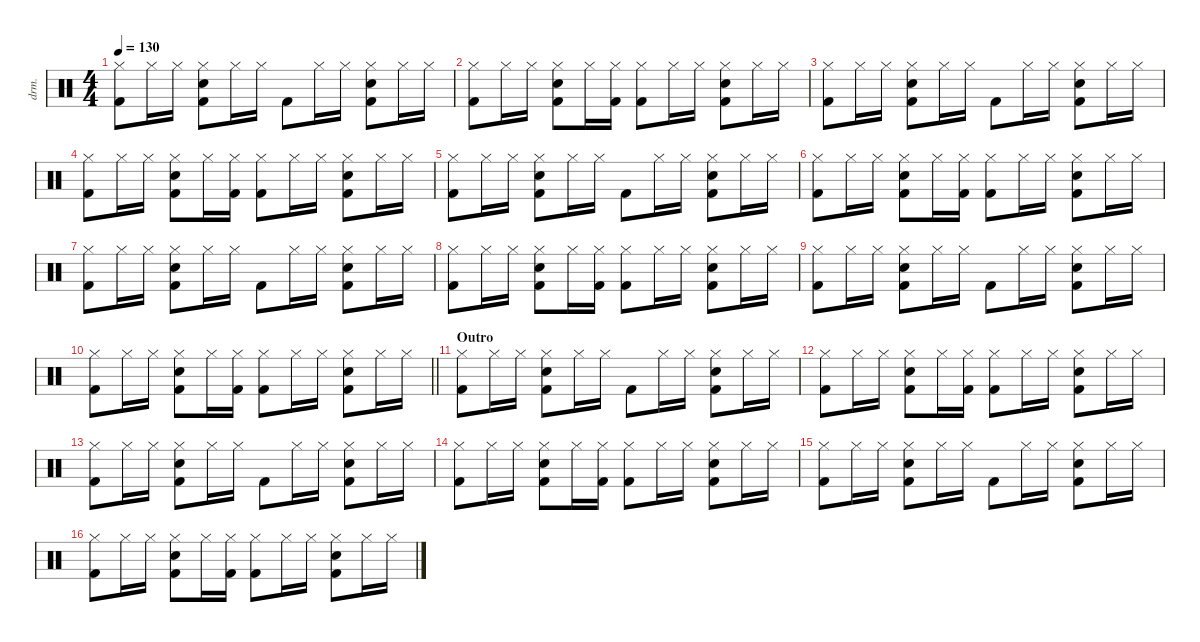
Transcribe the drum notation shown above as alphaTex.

\defaultSystemsLayout 4
\hideDynamics
\bracketExtendMode nobrackets
\otherSystemsTrackNameOrientation horizontal
\track ("Percussion" "drm.") {defaultSystemsLayout 4 instrument percussion}
\staff {score}
\articulation defaults
\ts (4 4)
\tempo 130
\clef neutral
\ks c
("Hi-Hat (closed)" "Kick (hit) 2").8{dy f beam Down} "Hi-Hat (closed)".16{beam Down} "Hi-Hat (closed)".16{beam Down} ("Hi-Hat (closed)" "Snare (hit) 2" "Kick (hit) 2").8{beam Down} "Hi-Hat (closed)".16{beam Down} "Hi-Hat (closed)".16{beam Down} "Kick (hit) 2".8{beam Down} "Hi-Hat (closed)".16{beam Down} "Hi-Hat (closed)".16{beam Down} ("Hi-Hat (closed)" "Snare (hit) 2" "Kick (hit) 2").8{beam Down} "Hi-Hat (closed)".16{beam Down} "Hi-Hat (closed)".16{beam Down} |
("Hi-Hat (closed)" "Kick (hit) 2").8{beam Down} "Hi-Hat (closed)".16{beam Down} "Hi-Hat (closed)".16{beam Down} ("Hi-Hat (closed)" "Snare (hit) 2" "Kick (hit) 2").8{beam Down} "Hi-Hat (closed)".16{beam Down} ("Hi-Hat (closed)" "Kick (hit) 2").16{beam Down} ("Hi-Hat (closed)" "Kick (hit) 2").8{beam Down} "Hi-Hat (closed)".16{beam Down} "Hi-Hat (closed)".16{beam Down} ("Hi-Hat (closed)" "Snare (hit) 2" "Kick (hit) 2").8{beam Down} "Hi-Hat (closed)".16{beam Down} "Hi-Hat (closed)".16{beam Down} |
("Hi-Hat (closed)" "Kick (hit) 2").8{beam Down} "Hi-Hat (closed)".16{beam Down} "Hi-Hat (closed)".16{beam Down} ("Hi-Hat (closed)" "Snare (hit) 2" "Kick (hit) 2").8{beam Down} "Hi-Hat (closed)".16{beam Down} "Hi-Hat (closed)".16{beam Down} "Kick (hit) 2".8{beam Down} "Hi-Hat (closed)".16{beam Down} "Hi-Hat (closed)".16{beam Down} ("Hi-Hat (closed)" "Snare (hit) 2" "Kick (hit) 2").8{beam Down} "Hi-Hat (closed)".16{beam Down} "Hi-Hat (closed)".16{beam Down} |
("Hi-Hat (closed)" "Kick (hit) 2").8{beam Down} "Hi-Hat (closed)".16{beam Down} "Hi-Hat (closed)".16{beam Down} ("Hi-Hat (closed)" "Snare (hit) 2" "Kick (hit) 2").8{beam Down} "Hi-Hat (closed)".16{beam Down} ("Hi-Hat (closed)" "Kick (hit) 2").16{beam Down} ("Hi-Hat (closed)" "Kick (hit) 2").8{beam Down} "Hi-Hat (closed)".16{beam Down} "Hi-Hat (closed)".16{beam Down} ("Hi-Hat (closed)" "Snare (hit) 2" "Kick (hit) 2").8{beam Down} "Hi-Hat (closed)".16{beam Down} "Hi-Hat (closed)".16{beam Down} |
("Hi-Hat (closed)" "Kick (hit) 2").8{beam Down} "Hi-Hat (closed)".16{beam Down} "Hi-Hat (closed)".16{beam Down} ("Hi-Hat (closed)" "Snare (hit) 2" "Kick (hit) 2").8{beam Down} "Hi-Hat (closed)".16{beam Down} "Hi-Hat (closed)".16{beam Down} "Kick (hit) 2".8{beam Down} "Hi-Hat (closed)".16{beam Down} "Hi-Hat (closed)".16{beam Down} ("Hi-Hat (closed)" "Snare (hit) 2" "Kick (hit) 2").8{beam Down} "Hi-Hat (closed)".16{beam Down} "Hi-Hat (closed)".16{beam Down} |
("Hi-Hat (closed)" "Kick (hit) 2").8{beam Down} "Hi-Hat (closed)".16{beam Down} "Hi-Hat (closed)".16{beam Down} ("Hi-Hat (closed)" "Snare (hit) 2" "Kick (hit) 2").8{beam Down} "Hi-Hat (closed)".16{beam Down} ("Hi-Hat (closed)" "Kick (hit) 2").16{beam Down} ("Hi-Hat (closed)" "Kick (hit) 2").8{beam Down} "Hi-Hat (closed)".16{beam Down} "Hi-Hat (closed)".16{beam Down} ("Hi-Hat (closed)" "Snare (hit) 2" "Kick (hit) 2").8{beam Down} "Hi-Hat (closed)".16{beam Down} "Hi-Hat (closed)".16{beam Down} |
("Hi-Hat (closed)" "Kick (hit) 2").8{beam Down} "Hi-Hat (closed)".16{beam Down} "Hi-Hat (closed)".16{beam Down} ("Hi-Hat (closed)" "Snare (hit) 2" "Kick (hit) 2").8{beam Down} "Hi-Hat (closed)".16{beam Down} "Hi-Hat (closed)".16{beam Down} "Kick (hit) 2".8{beam Down} "Hi-Hat (closed)".16{beam Down} "Hi-Hat (closed)".16{beam Down} ("Hi-Hat (closed)" "Snare (hit) 2" "Kick (hit) 2").8{beam Down} "Hi-Hat (closed)".16{beam Down} "Hi-Hat (closed)".16{beam Down} |
("Hi-Hat (closed)" "Kick (hit) 2").8{beam Down} "Hi-Hat (closed)".16{beam Down} "Hi-Hat (closed)".16{beam Down} ("Hi-Hat (closed)" "Snare (hit) 2" "Kick (hit) 2").8{beam Down} "Hi-Hat (closed)".16{beam Down} ("Hi-Hat (closed)" "Kick (hit) 2").16{beam Down} ("Hi-Hat (closed)" "Kick (hit) 2").8{beam Down} "Hi-Hat (closed)".16{beam Down} "Hi-Hat (closed)".16{beam Down} ("Hi-Hat (closed)" "Snare (hit) 2" "Kick (hit) 2").8{beam Down} "Hi-Hat (closed)".16{beam Down} "Hi-Hat (closed)".16{beam Down} |
("Hi-Hat (closed)" "Kick (hit) 2").8{beam Down} "Hi-Hat (closed)".16{beam Down} "Hi-Hat (closed)".16{beam Down} ("Hi-Hat (closed)" "Snare (hit) 2" "Kick (hit) 2").8{beam Down} "Hi-Hat (closed)".16{beam Down} "Hi-Hat (closed)".16{beam Down} "Kick (hit) 2".8{beam Down} "Hi-Hat (closed)".16{beam Down} "Hi-Hat (closed)".16{beam Down} ("Hi-Hat (closed)" "Snare (hit) 2" "Kick (hit) 2").8{beam Down} "Hi-Hat (closed)".16{beam Down} "Hi-Hat (closed)".16{beam Down} |
\barLineRight lightlight
("Hi-Hat (closed)" "Kick (hit) 2").8{beam Down} "Hi-Hat (closed)".16{beam Down} "Hi-Hat (closed)".16{beam Down} ("Hi-Hat (closed)" "Snare (hit) 2" "Kick (hit) 2").8{beam Down} "Hi-Hat (closed)".16{beam Down} ("Hi-Hat (closed)" "Kick (hit) 2").16{beam Down} ("Hi-Hat (closed)" "Kick (hit) 2").8{beam Down} "Hi-Hat (closed)".16{beam Down} "Hi-Hat (closed)".16{beam Down} ("Hi-Hat (closed)" "Snare (hit) 2" "Kick (hit) 2").8{beam Down} "Hi-Hat (closed)".16{beam Down} "Hi-Hat (closed)".16{beam Down} |
\section ("" "Outro")
("Hi-Hat (closed)" "Kick (hit) 2").8{beam Down} "Hi-Hat (closed)".16{beam Down} "Hi-Hat (closed)".16{beam Down} ("Hi-Hat (closed)" "Snare (hit) 2" "Kick (hit) 2").8{beam Down} "Hi-Hat (closed)".16{beam Down} "Hi-Hat (closed)".16{beam Down} "Kick (hit) 2".8{beam Down} "Hi-Hat (closed)".16{beam Down} "Hi-Hat (closed)".16{beam Down} ("Hi-Hat (closed)" "Snare (hit) 2" "Kick (hit) 2").8{beam Down} "Hi-Hat (closed)".16{beam Down} "Hi-Hat (closed)".16{beam Down} |
("Hi-Hat (closed)" "Kick (hit) 2").8{beam Down} "Hi-Hat (closed)".16{beam Down} "Hi-Hat (closed)".16{beam Down} ("Hi-Hat (closed)" "Snare (hit) 2" "Kick (hit) 2").8{beam Down} "Hi-Hat (closed)".16{beam Down} ("Hi-Hat (closed)" "Kick (hit) 2").16{beam Down} ("Hi-Hat (closed)" "Kick (hit) 2").8{beam Down} "Hi-Hat (closed)".16{beam Down} "Hi-Hat (closed)".16{beam Down} ("Hi-Hat (closed)" "Snare (hit) 2" "Kick (hit) 2").8{beam Down} "Hi-Hat (closed)".16{beam Down} "Hi-Hat (closed)".16{beam Down} |
("Hi-Hat (closed)" "Kick (hit) 2").8{beam Down} "Hi-Hat (closed)".16{beam Down} "Hi-Hat (closed)".16{beam Down} ("Hi-Hat (closed)" "Snare (hit) 2" "Kick (hit) 2").8{beam Down} "Hi-Hat (closed)".16{beam Down} "Hi-Hat (closed)".16{beam Down} "Kick (hit) 2".8{beam Down} "Hi-Hat (closed)".16{beam Down} "Hi-Hat (closed)".16{beam Down} ("Hi-Hat (closed)" "Snare (hit) 2" "Kick (hit) 2").8{beam Down} "Hi-Hat (closed)".16{beam Down} "Hi-Hat (closed)".16{beam Down} |
("Hi-Hat (closed)" "Kick (hit) 2").8{beam Down} "Hi-Hat (closed)".16{beam Down} "Hi-Hat (closed)".16{beam Down} ("Hi-Hat (closed)" "Snare (hit) 2" "Kick (hit) 2").8{beam Down} "Hi-Hat (closed)".16{beam Down} ("Hi-Hat (closed)" "Kick (hit) 2").16{beam Down} ("Hi-Hat (closed)" "Kick (hit) 2").8{beam Down} "Hi-Hat (closed)".16{beam Down} "Hi-Hat (closed)".16{beam Down} ("Hi-Hat (closed)" "Snare (hit) 2" "Kick (hit) 2").8{beam Down} "Hi-Hat (closed)".16{beam Down} "Hi-Hat (closed)".16{beam Down} |
("Hi-Hat (closed)" "Kick (hit) 2").8{beam Down} "Hi-Hat (closed)".16{beam Down} "Hi-Hat (closed)".16{beam Down} ("Hi-Hat (closed)" "Snare (hit) 2" "Kick (hit) 2").8{beam Down} "Hi-Hat (closed)".16{beam Down} "Hi-Hat (closed)".16{beam Down} "Kick (hit) 2".8{beam Down} "Hi-Hat (closed)".16{beam Down} "Hi-Hat (closed)".16{beam Down} ("Hi-Hat (closed)" "Snare (hit) 2" "Kick (hit) 2").8{beam Down} "Hi-Hat (closed)".16{beam Down} "Hi-Hat (closed)".16{beam Down} |
("Hi-Hat (closed)" "Kick (hit) 2").8{beam Down} "Hi-Hat (closed)".16{beam Down} "Hi-Hat (closed)".16{beam Down} ("Hi-Hat (closed)" "Snare (hit) 2" "Kick (hit) 2").8{beam Down} "Hi-Hat (closed)".16{beam Down} ("Hi-Hat (closed)" "Kick (hit) 2").16{beam Down} ("Hi-Hat (closed)" "Kick (hit) 2").8{beam Down} "Hi-Hat (closed)".16{beam Down} "Hi-Hat (closed)".16{beam Down} ("Hi-Hat (closed)" "Snare (hit) 2" "Kick (hit) 2").8{beam Down} "Hi-Hat (closed)".16{beam Down} "Hi-Hat (closed)".16{beam Down}
